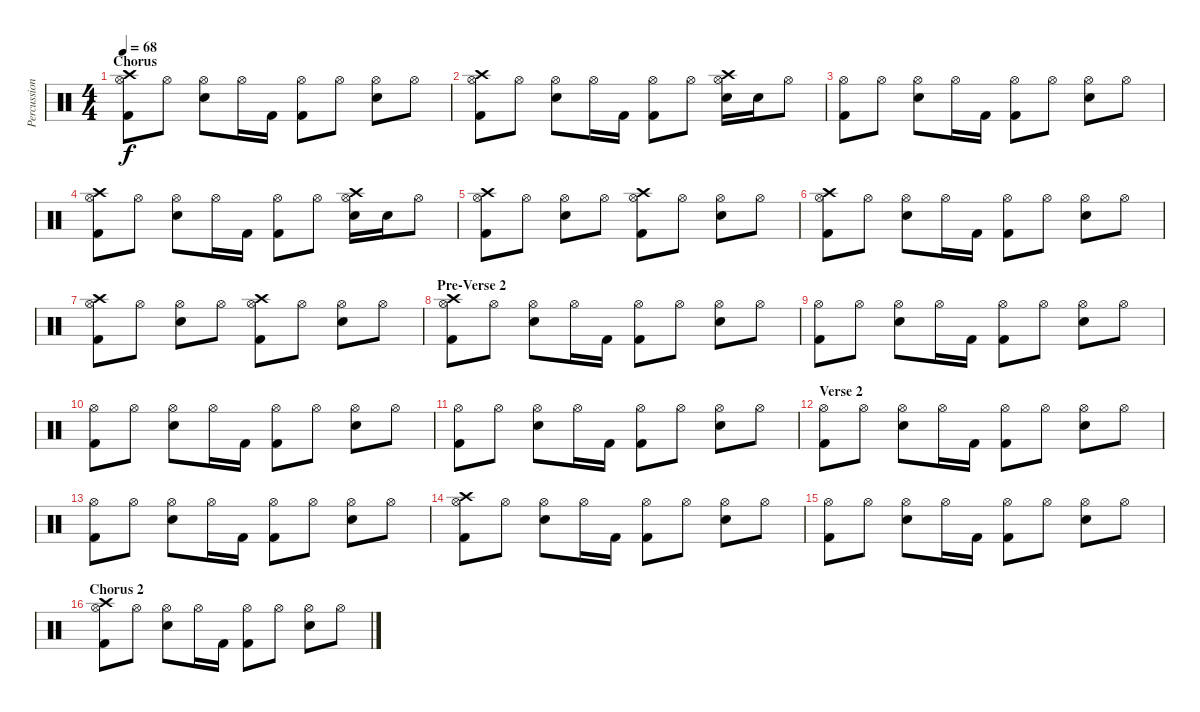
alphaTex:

\track ("Percussions" "Percussion") {instrument percussion}
\staff {score}
\articulation defaults
\ts (4 4)
\section ("" "Chorus")
\tempo 68
\clef neutral
\ks c
("Hi-Hat (open)" "Crash high (hit)" "Kick (hit) 2").8{dy f} "Hi-Hat (open)".8 ("Hi-Hat (open)" "Snare (hit) 2").8 "Hi-Hat (open)".16 "Kick (hit) 2".16 ("Hi-Hat (open)" "Kick (hit) 2").8 "Hi-Hat (open)".8 ("Hi-Hat (open)" "Snare (hit) 2").8 "Hi-Hat (open)".8 |
("Hi-Hat (open)" "Crash high (hit)" "Kick (hit) 2").8 "Hi-Hat (open)".8 ("Hi-Hat (open)" "Snare (hit) 2").8 "Hi-Hat (open)".16 "Kick (hit) 2".16 ("Hi-Hat (open)" "Kick (hit) 2").8 "Hi-Hat (open)".8 ("Hi-Hat (open)" "Crash high (hit)" "Snare (hit) 2").16 "Snare (hit) 2".16 "Hi-Hat (open)".8 |
("Hi-Hat (open)" "Kick (hit) 2").8 "Hi-Hat (open)".8 ("Hi-Hat (open)" "Snare (hit) 2").8 "Hi-Hat (open)".16 "Kick (hit) 2".16 ("Hi-Hat (open)" "Kick (hit) 2").8 "Hi-Hat (open)".8 ("Hi-Hat (open)" "Snare (hit) 2").8 "Hi-Hat (open)".8 |
("Hi-Hat (open)" "Crash high (hit)" "Kick (hit) 2").8 "Hi-Hat (open)".8 ("Hi-Hat (open)" "Snare (hit) 2").8 "Hi-Hat (open)".16 "Kick (hit) 2".16 ("Hi-Hat (open)" "Kick (hit) 2").8 "Hi-Hat (open)".8 ("Hi-Hat (open)" "Crash high (hit)" "Snare (hit) 2").16 "Snare (hit) 2".16 "Hi-Hat (open)".8 |
("Hi-Hat (open)" "Crash high (hit)" "Kick (hit) 2").8 "Hi-Hat (open)".8 ("Hi-Hat (open)" "Snare (hit) 2").8 "Hi-Hat (open)".8 ("Hi-Hat (open)" "Crash high (hit)" "Kick (hit) 2").8 "Hi-Hat (open)".8 ("Hi-Hat (open)" "Snare (hit) 2").8 "Hi-Hat (open)".8 |
("Hi-Hat (open)" "Crash high (hit)" "Kick (hit) 2").8 "Hi-Hat (open)".8 ("Hi-Hat (open)" "Snare (hit) 2").8 "Hi-Hat (open)".16 "Kick (hit) 2".16 ("Hi-Hat (open)" "Kick (hit) 2").8 "Hi-Hat (open)".8 ("Hi-Hat (open)" "Snare (hit) 2").8 "Hi-Hat (open)".8 |
("Hi-Hat (open)" "Crash high (hit)" "Kick (hit) 2").8 "Hi-Hat (open)".8 ("Hi-Hat (open)" "Snare (hit) 2").8 "Hi-Hat (open)".8 ("Hi-Hat (open)" "Crash high (hit)" "Kick (hit) 2").8 "Hi-Hat (open)".8 ("Hi-Hat (open)" "Snare (hit) 2").8 "Hi-Hat (open)".8 |
\section ("" "Pre-Verse 2")
("Hi-Hat (open)" "Crash high (hit)" "Kick (hit) 2").8 "Hi-Hat (open)".8 ("Hi-Hat (open)" "Snare (hit) 2").8 "Hi-Hat (open)".16 "Kick (hit) 2".16 ("Hi-Hat (open)" "Kick (hit) 2").8 "Hi-Hat (open)".8 ("Hi-Hat (open)" "Snare (hit) 2").8 "Hi-Hat (open)".8 |
("Hi-Hat (open)" "Kick (hit) 2").8 "Hi-Hat (open)".8 ("Hi-Hat (open)" "Snare (hit) 2").8 "Hi-Hat (open)".16 "Kick (hit) 2".16 ("Hi-Hat (open)" "Kick (hit) 2").8 "Hi-Hat (open)".8 ("Hi-Hat (open)" "Snare (hit) 2").8 "Hi-Hat (open)".8 |
("Hi-Hat (open)" "Kick (hit) 2").8 "Hi-Hat (open)".8 ("Hi-Hat (open)" "Snare (hit) 2").8 "Hi-Hat (open)".16 "Kick (hit) 2".16 ("Hi-Hat (open)" "Kick (hit) 2").8 "Hi-Hat (open)".8 ("Hi-Hat (open)" "Snare (hit) 2").8 "Hi-Hat (open)".8 |
("Hi-Hat (open)" "Kick (hit) 2").8 "Hi-Hat (open)".8 ("Hi-Hat (open)" "Snare (hit) 2").8 "Hi-Hat (open)".16 "Kick (hit) 2".16 ("Hi-Hat (open)" "Kick (hit) 2").8 "Hi-Hat (open)".8 ("Hi-Hat (open)" "Snare (hit) 2").8 "Hi-Hat (open)".8 |
\section ("" "Verse 2")
("Hi-Hat (open)" "Kick (hit) 2").8 "Hi-Hat (open)".8 ("Hi-Hat (open)" "Snare (hit) 2").8 "Hi-Hat (open)".16 "Kick (hit) 2".16 ("Hi-Hat (open)" "Kick (hit) 2").8 "Hi-Hat (open)".8 ("Hi-Hat (open)" "Snare (hit) 2").8 "Hi-Hat (open)".8 |
("Hi-Hat (open)" "Kick (hit) 2").8 "Hi-Hat (open)".8 ("Hi-Hat (open)" "Snare (hit) 2").8 "Hi-Hat (open)".16 "Kick (hit) 2".16 ("Hi-Hat (open)" "Kick (hit) 2").8 "Hi-Hat (open)".8 ("Hi-Hat (open)" "Snare (hit) 2").8 "Hi-Hat (open)".8 |
("Hi-Hat (open)" "Crash high (hit)" "Kick (hit) 2").8 "Hi-Hat (open)".8 ("Hi-Hat (open)" "Snare (hit) 2").8 "Hi-Hat (open)".16 "Kick (hit) 2".16 ("Hi-Hat (open)" "Kick (hit) 2").8 "Hi-Hat (open)".8 ("Hi-Hat (open)" "Snare (hit) 2").8 "Hi-Hat (open)".8 |
("Hi-Hat (open)" "Kick (hit) 2").8 "Hi-Hat (open)".8 ("Hi-Hat (open)" "Snare (hit) 2").8 "Hi-Hat (open)".16 "Kick (hit) 2".16 ("Hi-Hat (open)" "Kick (hit) 2").8 "Hi-Hat (open)".8 ("Hi-Hat (open)" "Snare (hit) 2").8 "Hi-Hat (open)".8 |
\section ("" "Chorus 2")
("Hi-Hat (open)" "Crash high (hit)" "Kick (hit) 2").8 "Hi-Hat (open)".8 ("Hi-Hat (open)" "Snare (hit) 2").8 "Hi-Hat (open)".16 "Kick (hit) 2".16 ("Hi-Hat (open)" "Kick (hit) 2").8 "Hi-Hat (open)".8 ("Hi-Hat (open)" "Snare (hit) 2").8 "Hi-Hat (open)".8
